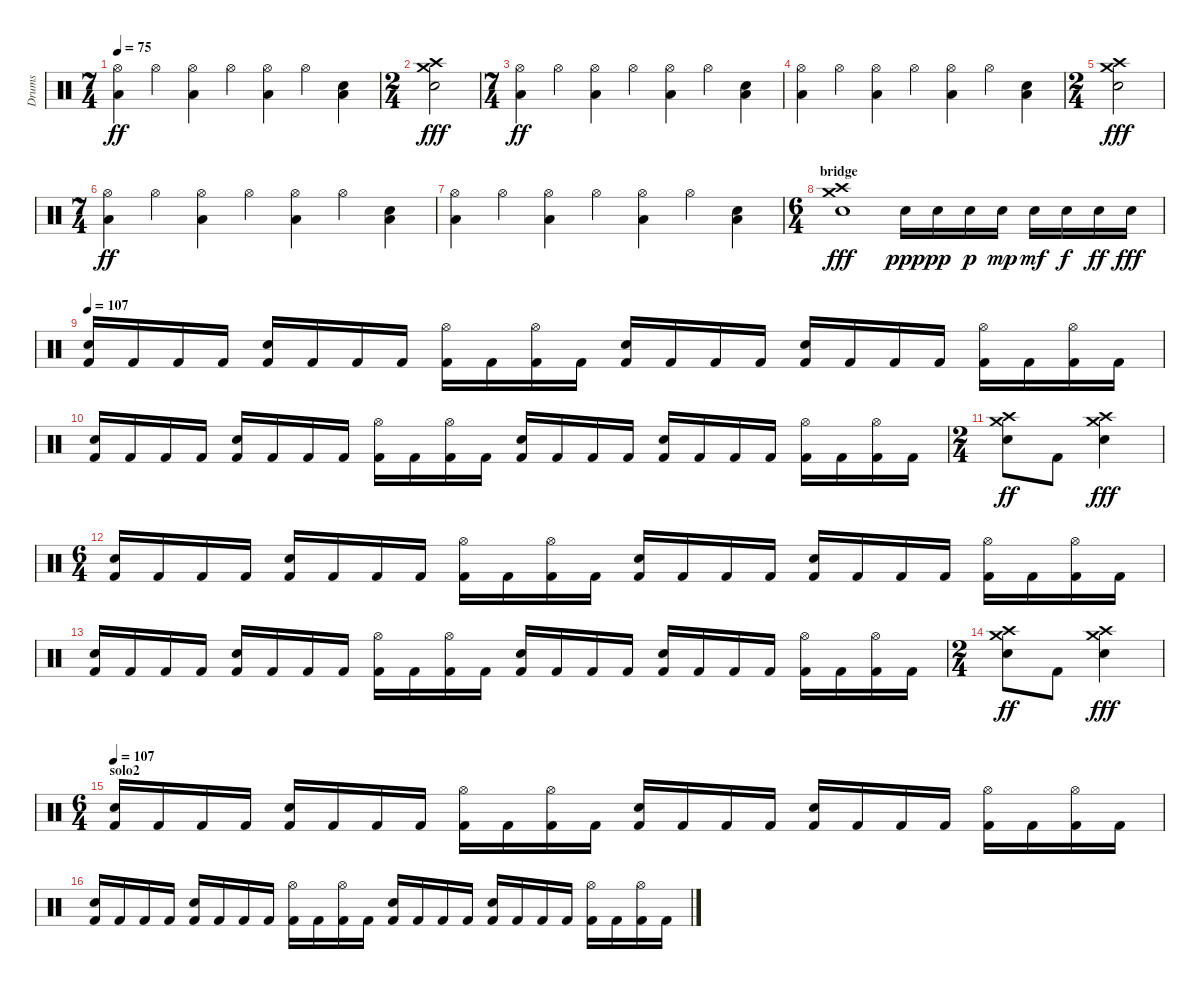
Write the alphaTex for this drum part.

\track ("Drums" "Drums") {instrument percussion}
\staff {score}
\articulation defaults
\ts (7 4)
\tempo 75
\clef neutral
\ks c
("Hi-Hat (open)" "Low Tom (hit)").4{dy ff} "Hi-Hat (open)".4 ("Low Tom (hit)" "Hi-Hat (open)").4 "Hi-Hat (open)".4 ("Hi-Hat (open)" "Low Tom (hit)").4 "Hi-Hat (open)".4 ("Electric Snare (hit)" "Low Tom (hit)").4 |
\ts (2 4)
("Crash high (hit)" "Crash medium (hit)" "Electric Snare (hit)").2{dy fff} |
\ts (7 4)
("Hi-Hat (open)" "Low Tom (hit)").4{dy ff} "Hi-Hat (open)".4 ("Low Tom (hit)" "Hi-Hat (open)").4 "Hi-Hat (open)".4 ("Hi-Hat (open)" "Low Tom (hit)").4 "Hi-Hat (open)".4 ("Electric Snare (hit)" "Low Tom (hit)").4 |
("Hi-Hat (open)" "Low Tom (hit)").4 "Hi-Hat (open)".4 ("Low Tom (hit)" "Hi-Hat (open)").4 "Hi-Hat (open)".4 ("Hi-Hat (open)" "Low Tom (hit)").4 "Hi-Hat (open)".4 ("Electric Snare (hit)" "Low Tom (hit)").4 |
\ts (2 4)
("Crash high (hit)" "Crash medium (hit)" "Electric Snare (hit)").2{dy fff} |
\ts (7 4)
("Hi-Hat (open)" "Low Tom (hit)").4{dy ff} "Hi-Hat (open)".4 ("Low Tom (hit)" "Hi-Hat (open)").4 "Hi-Hat (open)".4 ("Hi-Hat (open)" "Low Tom (hit)").4 "Hi-Hat (open)".4 ("Electric Snare (hit)" "Low Tom (hit)").4 |
("Hi-Hat (open)" "Low Tom (hit)").4 "Hi-Hat (open)".4 ("Low Tom (hit)" "Hi-Hat (open)").4 "Hi-Hat (open)".4 ("Hi-Hat (open)" "Low Tom (hit)").4 "Hi-Hat (open)".4 ("Electric Snare (hit)" "Low Tom (hit)").4 |
\ts (6 4)
\section ("" "bridge")
("Crash high (hit)" "Crash medium (hit)" "Electric Snare (hit)").1{dy fff} "Electric Snare (hit)".16{dy ppp} "Electric Snare (hit)".16{dy pp} "Electric Snare (hit)".16{dy p} "Electric Snare (hit)".16{dy mp} "Electric Snare (hit)".16{dy mf} "Electric Snare (hit)".16{dy f} "Electric Snare (hit)".16{dy ff} "Electric Snare (hit)".16{dy fff} |
\tempo 107
("Electric Snare (hit)" "Kick (hit) 2").16 "Kick (hit) 2".16 "Kick (hit) 2".16 "Kick (hit) 2".16 ("Electric Snare (hit)" "Kick (hit) 2").16 "Kick (hit) 2".16 "Kick (hit) 2".16 "Kick (hit) 2".16 ("Hi-Hat (open)" "Kick (hit) 2").16 "Kick (hit) 2".16 ("Hi-Hat (open)" "Kick (hit) 2").16 "Kick (hit) 2".16 ("Electric Snare (hit)" "Kick (hit) 2").16 "Kick (hit) 2".16 "Kick (hit) 2".16 "Kick (hit) 2".16 ("Electric Snare (hit)" "Kick (hit) 2").16 "Kick (hit) 2".16 "Kick (hit) 2".16 "Kick (hit) 2".16 ("Hi-Hat (open)" "Kick (hit) 2").16 "Kick (hit) 2".16 ("Hi-Hat (open)" "Kick (hit) 2").16 "Kick (hit) 2".16 |
("Electric Snare (hit)" "Kick (hit) 2").16 "Kick (hit) 2".16 "Kick (hit) 2".16 "Kick (hit) 2".16 ("Electric Snare (hit)" "Kick (hit) 2").16 "Kick (hit) 2".16 "Kick (hit) 2".16 "Kick (hit) 2".16 ("Hi-Hat (open)" "Kick (hit) 2").16 "Kick (hit) 2".16 ("Hi-Hat (open)" "Kick (hit) 2").16 "Kick (hit) 2".16 ("Electric Snare (hit)" "Kick (hit) 2").16 "Kick (hit) 2".16 "Kick (hit) 2".16 "Kick (hit) 2".16 ("Electric Snare (hit)" "Kick (hit) 2").16 "Kick (hit) 2".16 "Kick (hit) 2".16 "Kick (hit) 2".16 ("Hi-Hat (open)" "Kick (hit) 2").16 "Kick (hit) 2".16 ("Hi-Hat (open)" "Kick (hit) 2").16 "Kick (hit) 2".16 |
\ts (2 4)
("Crash high (hit)" "Crash medium (hit)" "Electric Snare (hit)").8{dy ff} "Kick (hit) 2".8 ("Electric Snare (hit)" "Crash medium (hit)" "Crash high (hit)").4{dy fff} |
\ts (6 4)
("Electric Snare (hit)" "Kick (hit) 2").16 "Kick (hit) 2".16 "Kick (hit) 2".16 "Kick (hit) 2".16 ("Electric Snare (hit)" "Kick (hit) 2").16 "Kick (hit) 2".16 "Kick (hit) 2".16 "Kick (hit) 2".16 ("Hi-Hat (open)" "Kick (hit) 2").16 "Kick (hit) 2".16 ("Hi-Hat (open)" "Kick (hit) 2").16 "Kick (hit) 2".16 ("Electric Snare (hit)" "Kick (hit) 2").16 "Kick (hit) 2".16 "Kick (hit) 2".16 "Kick (hit) 2".16 ("Electric Snare (hit)" "Kick (hit) 2").16 "Kick (hit) 2".16 "Kick (hit) 2".16 "Kick (hit) 2".16 ("Hi-Hat (open)" "Kick (hit) 2").16 "Kick (hit) 2".16 ("Hi-Hat (open)" "Kick (hit) 2").16 "Kick (hit) 2".16 |
("Electric Snare (hit)" "Kick (hit) 2").16 "Kick (hit) 2".16 "Kick (hit) 2".16 "Kick (hit) 2".16 ("Electric Snare (hit)" "Kick (hit) 2").16 "Kick (hit) 2".16 "Kick (hit) 2".16 "Kick (hit) 2".16 ("Hi-Hat (open)" "Kick (hit) 2").16 "Kick (hit) 2".16 ("Hi-Hat (open)" "Kick (hit) 2").16 "Kick (hit) 2".16 ("Electric Snare (hit)" "Kick (hit) 2").16 "Kick (hit) 2".16 "Kick (hit) 2".16 "Kick (hit) 2".16 ("Electric Snare (hit)" "Kick (hit) 2").16 "Kick (hit) 2".16 "Kick (hit) 2".16 "Kick (hit) 2".16 ("Hi-Hat (open)" "Kick (hit) 2").16 "Kick (hit) 2".16 ("Hi-Hat (open)" "Kick (hit) 2").16 "Kick (hit) 2".16 |
\ts (2 4)
("Crash high (hit)" "Crash medium (hit)" "Electric Snare (hit)").8{dy ff} "Kick (hit) 2".8 ("Electric Snare (hit)" "Crash medium (hit)" "Crash high (hit)").4{dy fff} |
\ts (6 4)
\section ("" "solo2")
\tempo 107
("Electric Snare (hit)" "Kick (hit) 2").16 "Kick (hit) 2".16 "Kick (hit) 2".16 "Kick (hit) 2".16 ("Electric Snare (hit)" "Kick (hit) 2").16 "Kick (hit) 2".16 "Kick (hit) 2".16 "Kick (hit) 2".16 ("Hi-Hat (open)" "Kick (hit) 2").16 "Kick (hit) 2".16 ("Hi-Hat (open)" "Kick (hit) 2").16 "Kick (hit) 2".16 ("Electric Snare (hit)" "Kick (hit) 2").16 "Kick (hit) 2".16 "Kick (hit) 2".16 "Kick (hit) 2".16 ("Electric Snare (hit)" "Kick (hit) 2").16 "Kick (hit) 2".16 "Kick (hit) 2".16 "Kick (hit) 2".16 ("Hi-Hat (open)" "Kick (hit) 2").16 "Kick (hit) 2".16 ("Hi-Hat (open)" "Kick (hit) 2").16 "Kick (hit) 2".16 |
("Electric Snare (hit)" "Kick (hit) 2").16 "Kick (hit) 2".16 "Kick (hit) 2".16 "Kick (hit) 2".16 ("Electric Snare (hit)" "Kick (hit) 2").16 "Kick (hit) 2".16 "Kick (hit) 2".16 "Kick (hit) 2".16 ("Hi-Hat (open)" "Kick (hit) 2").16 "Kick (hit) 2".16 ("Hi-Hat (open)" "Kick (hit) 2").16 "Kick (hit) 2".16 ("Electric Snare (hit)" "Kick (hit) 2").16 "Kick (hit) 2".16 "Kick (hit) 2".16 "Kick (hit) 2".16 ("Electric Snare (hit)" "Kick (hit) 2").16 "Kick (hit) 2".16 "Kick (hit) 2".16 "Kick (hit) 2".16 ("Hi-Hat (open)" "Kick (hit) 2").16 "Kick (hit) 2".16 ("Hi-Hat (open)" "Kick (hit) 2").16 "Kick (hit) 2".16
